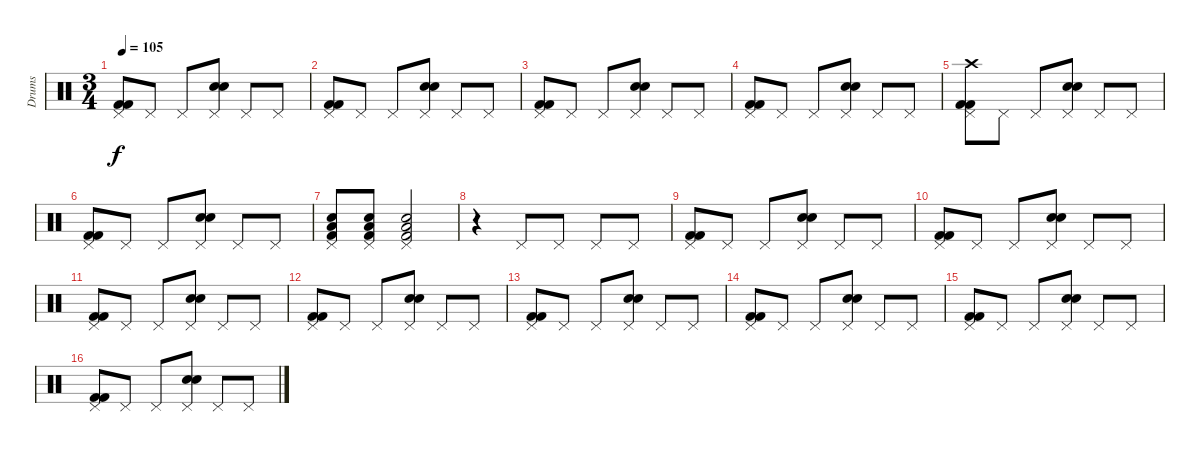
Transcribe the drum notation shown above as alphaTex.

\track ("Drums" "Drums") {instrument percussion}
\staff {score}
\articulation defaults
\ts (3 4)
\tempo 105
\clef neutral
\ks c
("Pedal Hi-Hat (hit)" "Kick (hit) 2" "Kick (hit) 2").8{dy f} "Pedal Hi-Hat (hit)".8 "Pedal Hi-Hat (hit)".8 ("Pedal Hi-Hat (hit)" "Electric Snare (hit)" "Electric Snare (hit)").8 "Pedal Hi-Hat (hit)".8 "Pedal Hi-Hat (hit)".8 |
("Pedal Hi-Hat (hit)" "Kick (hit) 2" "Kick (hit) 2").8 "Pedal Hi-Hat (hit)".8 "Pedal Hi-Hat (hit)".8 ("Pedal Hi-Hat (hit)" "Electric Snare (hit)" "Electric Snare (hit)").8 "Pedal Hi-Hat (hit)".8 "Pedal Hi-Hat (hit)".8 |
("Pedal Hi-Hat (hit)" "Kick (hit) 2" "Kick (hit) 2").8 "Pedal Hi-Hat (hit)".8 "Pedal Hi-Hat (hit)".8 ("Pedal Hi-Hat (hit)" "Electric Snare (hit)" "Electric Snare (hit)").8 "Pedal Hi-Hat (hit)".8 "Pedal Hi-Hat (hit)".8 |
("Pedal Hi-Hat (hit)" "Kick (hit) 2" "Kick (hit) 2").8 "Pedal Hi-Hat (hit)".8 "Pedal Hi-Hat (hit)".8 ("Pedal Hi-Hat (hit)" "Electric Snare (hit)" "Electric Snare (hit)").8 "Pedal Hi-Hat (hit)".8 "Pedal Hi-Hat (hit)".8 |
("Pedal Hi-Hat (hit)" "Crash high (hit)" "Kick (hit) 2" "Kick (hit) 2").8 "Pedal Hi-Hat (hit)".8 "Pedal Hi-Hat (hit)".8 ("Pedal Hi-Hat (hit)" "Electric Snare (hit)" "Electric Snare (hit)").8 "Pedal Hi-Hat (hit)".8 "Pedal Hi-Hat (hit)".8 |
("Pedal Hi-Hat (hit)" "Kick (hit) 2" "Kick (hit) 2").8 "Pedal Hi-Hat (hit)".8 "Pedal Hi-Hat (hit)".8 ("Pedal Hi-Hat (hit)" "Electric Snare (hit)" "Electric Snare (hit)").8 "Pedal Hi-Hat (hit)".8 "Pedal Hi-Hat (hit)".8 |
("Low Tom (hit)" "Pedal Hi-Hat (hit)" "Snare (hit) 2" "Kick (hit) 2").8 ("Low Tom (hit)" "Pedal Hi-Hat (hit)" "Snare (hit) 2" "Kick (hit) 2").8 ("Low Tom (hit)" "Pedal Hi-Hat (hit)" "Snare (hit) 2" "Kick (hit) 2").2 |
r.4 "Pedal Hi-Hat (hit)".8 "Pedal Hi-Hat (hit)".8 "Pedal Hi-Hat (hit)".8 "Pedal Hi-Hat (hit)".8 |
("Pedal Hi-Hat (hit)" "Kick (hit) 2" "Kick (hit) 2").8 "Pedal Hi-Hat (hit)".8 "Pedal Hi-Hat (hit)".8 ("Pedal Hi-Hat (hit)" "Electric Snare (hit)" "Electric Snare (hit)").8 "Pedal Hi-Hat (hit)".8 "Pedal Hi-Hat (hit)".8 |
("Pedal Hi-Hat (hit)" "Kick (hit) 2" "Kick (hit) 2").8 "Pedal Hi-Hat (hit)".8 "Pedal Hi-Hat (hit)".8 ("Pedal Hi-Hat (hit)" "Electric Snare (hit)" "Electric Snare (hit)").8 "Pedal Hi-Hat (hit)".8 "Pedal Hi-Hat (hit)".8 |
("Pedal Hi-Hat (hit)" "Kick (hit) 2" "Kick (hit) 2").8 "Pedal Hi-Hat (hit)".8 "Pedal Hi-Hat (hit)".8 ("Pedal Hi-Hat (hit)" "Electric Snare (hit)" "Electric Snare (hit)").8 "Pedal Hi-Hat (hit)".8 "Pedal Hi-Hat (hit)".8 |
("Pedal Hi-Hat (hit)" "Kick (hit) 2" "Kick (hit) 2").8 "Pedal Hi-Hat (hit)".8 "Pedal Hi-Hat (hit)".8 ("Pedal Hi-Hat (hit)" "Electric Snare (hit)" "Electric Snare (hit)").8 "Pedal Hi-Hat (hit)".8 "Pedal Hi-Hat (hit)".8 |
("Pedal Hi-Hat (hit)" "Kick (hit) 2" "Kick (hit) 2").8 "Pedal Hi-Hat (hit)".8 "Pedal Hi-Hat (hit)".8 ("Pedal Hi-Hat (hit)" "Electric Snare (hit)" "Electric Snare (hit)").8 "Pedal Hi-Hat (hit)".8 "Pedal Hi-Hat (hit)".8 |
("Pedal Hi-Hat (hit)" "Kick (hit) 2" "Kick (hit) 2").8 "Pedal Hi-Hat (hit)".8 "Pedal Hi-Hat (hit)".8 ("Pedal Hi-Hat (hit)" "Electric Snare (hit)" "Electric Snare (hit)").8 "Pedal Hi-Hat (hit)".8 "Pedal Hi-Hat (hit)".8 |
("Pedal Hi-Hat (hit)" "Kick (hit) 2" "Kick (hit) 2").8 "Pedal Hi-Hat (hit)".8 "Pedal Hi-Hat (hit)".8 ("Pedal Hi-Hat (hit)" "Electric Snare (hit)" "Electric Snare (hit)").8 "Pedal Hi-Hat (hit)".8 "Pedal Hi-Hat (hit)".8 |
("Pedal Hi-Hat (hit)" "Kick (hit) 2" "Kick (hit) 2").8 "Pedal Hi-Hat (hit)".8 "Pedal Hi-Hat (hit)".8 ("Pedal Hi-Hat (hit)" "Electric Snare (hit)" "Electric Snare (hit)").8 "Pedal Hi-Hat (hit)".8 "Pedal Hi-Hat (hit)".8
